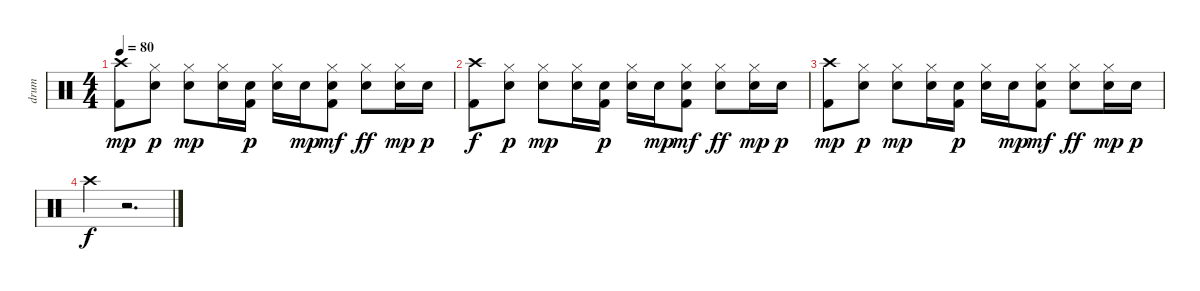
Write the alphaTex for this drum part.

\track ("drum" "drum") {instrument percussion}
\staff {score}
\articulation defaults
\ts (4 4)
\tempo 80
\clef neutral
\ks c
("Crash high (hit)" "Kick (hit) 2").8{dy mp} ("Hi-Hat (closed)" "Snare (hit) 2").8{dy p} ("Hi-Hat (closed)" "Snare (hit) 2").8{dy mp} ("Hi-Hat (closed)" "Snare (hit) 2").16 ("Snare (hit) 2" "Kick (hit) 2").16{dy p} ("Hi-Hat (closed)" "Snare (hit) 2").16 "Snare (hit) 2".16{dy mp} ("Hi-Hat (closed)" "Snare (hit) 2" "Kick (hit) 2").8{dy mf} ("Hi-Hat (closed)" "Snare (hit) 2").8{dy ff} ("Hi-Hat (closed)" "Snare (hit) 2").16{dy mp} "Snare (hit) 2".16{dy p} |
("Crash high (hit)" "Kick (hit) 2").8{dy f} ("Hi-Hat (closed)" "Snare (hit) 2").8{dy p} ("Hi-Hat (closed)" "Snare (hit) 2").8{dy mp} ("Hi-Hat (closed)" "Snare (hit) 2").16 ("Snare (hit) 2" "Kick (hit) 2").16{dy p} ("Hi-Hat (closed)" "Snare (hit) 2").16 "Snare (hit) 2".16{dy mp} ("Hi-Hat (closed)" "Snare (hit) 2" "Kick (hit) 2").8{dy mf} ("Hi-Hat (closed)" "Snare (hit) 2").8{dy ff} ("Hi-Hat (closed)" "Snare (hit) 2").16{dy mp} "Snare (hit) 2".16{dy p} |
("Crash high (hit)" "Kick (hit) 2").8{dy mp} ("Hi-Hat (closed)" "Snare (hit) 2").8{dy p} ("Hi-Hat (closed)" "Snare (hit) 2").8{dy mp} ("Hi-Hat (closed)" "Snare (hit) 2").16 ("Snare (hit) 2" "Kick (hit) 2").16{dy p} ("Hi-Hat (closed)" "Snare (hit) 2").16 "Snare (hit) 2".16{dy mp} ("Hi-Hat (closed)" "Snare (hit) 2" "Kick (hit) 2").8{dy mf} ("Hi-Hat (closed)" "Snare (hit) 2").8{dy ff} ("Hi-Hat (closed)" "Snare (hit) 2").16{dy mp} "Snare (hit) 2".16{dy p} |
"Crash high (hit)".4{dy f} r.2{d}
